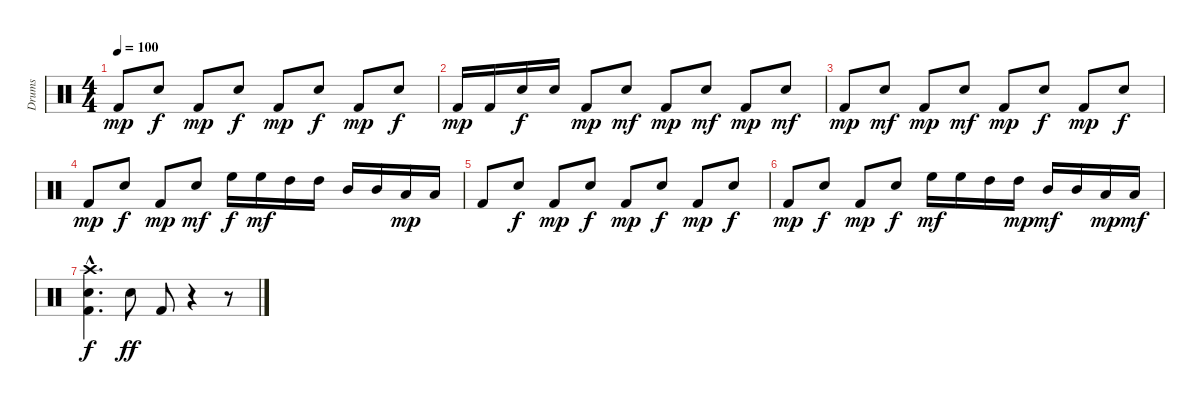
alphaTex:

\track ("Drums" "Drums") {instrument percussion}
\staff {score}
\articulation defaults
\ts (4 4)
\tempo 100
\clef neutral
\ks c "Kick (hit) 2".8{dy mp} "Snare (hit) 2".8{dy f} "Kick (hit) 2".8{dy mp} "Snare (hit) 2".8{dy f} "Kick (hit) 2".8{dy mp} "Snare (hit) 2".8{dy f} "Kick (hit) 2".8{dy mp} "Snare (hit) 2".8{dy f}
|
"Kick (hit) 2".16{dy mp} "Kick (hit) 2".16 "Snare (hit) 2".16{dy f} "Snare (hit) 2".16 "Kick (hit) 2".8{dy mp} "Snare (hit) 2".8{dy mf} "Kick (hit) 2".8{dy mp} "Snare (hit) 2".8{dy mf} "Kick (hit) 2".8{dy mp} "Snare (hit) 2".8{dy mf} |
"Kick (hit) 2".8{dy mp} "Snare (hit) 2".8{dy mf} "Kick (hit) 2".8{dy mp} "Snare (hit) 2".8{dy mf} "Kick (hit) 2".8{dy mp} "Snare (hit) 2".8{dy f} "Kick (hit) 2".8{dy mp} "Snare (hit) 2".8{dy f} |
"Kick (hit) 2".8{dy mp} "Snare (hit) 2".8{dy f} "Kick (hit) 2".8{dy mp} "Snare (hit) 2".8{dy mf} "High Floor Tom (hit)".16{dy f} "High Floor Tom (hit)".16{dy mf} "High Tom (hit)".16 "High Tom (hit)".16 "Mid Tom (hit)".16 "Mid Tom (hit)".16 "Low Tom (hit)".16{dy mp} "Low Tom (hit)".16 |
"Kick (hit) 2".8 "Snare (hit) 2".8{dy f} "Kick (hit) 2".8{dy mp} "Snare (hit) 2".8{dy f} "Kick (hit) 2".8{dy mp} "Snare (hit) 2".8{dy f} "Kick (hit) 2".8{dy mp} "Snare (hit) 2".8{dy f} |
"Kick (hit) 2".8{dy mp} "Snare (hit) 2".8{dy f} "Kick (hit) 2".8{dy mp} "Snare (hit) 2".8{dy f} "High Floor Tom (hit)".16{dy mf} "High Floor Tom (hit)".16 "High Tom (hit)".16 "High Tom (hit)".16{dy mp} "Mid Tom (hit)".16{dy mf} "Mid Tom (hit)".16 "Low Tom (hit)".16{dy mp} "Low Tom (hit)".16{dy mf} |
("Kick (hit) 2"{hac} "Snare (hit) 2"{hac} "Crash high (hit)"{hac}).4{d dy f} "Snare (hit) 2".8{dy ff} "Kick (hit) 2".8 r.4 r.8
